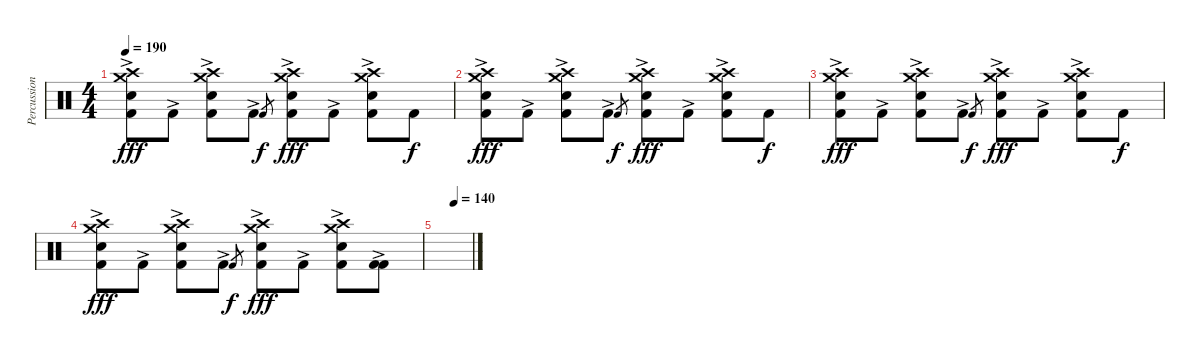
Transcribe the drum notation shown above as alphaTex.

\track ("Percussions" "Percussion") {instrument percussion}
\staff {score}
\articulation defaults
\ts (4 4)
\tempo 190
\clef neutral
\ks c
("Crash high (hit)" "Crash medium (hit)" "Electric Snare (hit)" "Kick (hit) 2"{ac}).8{dy fff} "Kick (hit) 2"{ac}.8 ("Crash high (hit)" "Crash medium (hit)" "Electric Snare (hit)" "Kick (hit) 2"{ac}).8 "Kick (hit) 2"{ac}.8 "Kick (hit) 2".8{gr dy f} ("Crash high (hit)" "Crash medium (hit)" "Electric Snare (hit)" "Kick (hit) 2"{ac}).8{dy fff} "Kick (hit) 2"{ac}.8 ("Crash high (hit)" "Crash medium (hit)" "Electric Snare (hit)" "Kick (hit) 2"{ac}).8 "Kick (hit) 2".8{dy f} |
("Crash high (hit)" "Crash medium (hit)" "Electric Snare (hit)" "Kick (hit) 2"{ac}).8{dy fff} "Kick (hit) 2"{ac}.8 ("Crash high (hit)" "Crash medium (hit)" "Electric Snare (hit)" "Kick (hit) 2"{ac}).8 "Kick (hit) 2"{ac}.8 "Kick (hit) 2".8{gr dy f} ("Crash high (hit)" "Crash medium (hit)" "Electric Snare (hit)" "Kick (hit) 2"{ac}).8{dy fff} "Kick (hit) 2"{ac}.8 ("Crash high (hit)" "Crash medium (hit)" "Electric Snare (hit)" "Kick (hit) 2"{ac}).8 "Kick (hit) 2".8{dy f} |
("Crash high (hit)" "Crash medium (hit)" "Electric Snare (hit)" "Kick (hit) 2"{ac}).8{dy fff} "Kick (hit) 2"{ac}.8 ("Crash high (hit)" "Crash medium (hit)" "Electric Snare (hit)" "Kick (hit) 2"{ac}).8 "Kick (hit) 2"{ac}.8 "Kick (hit) 2".8{gr dy f} ("Crash high (hit)" "Crash medium (hit)" "Electric Snare (hit)" "Kick (hit) 2"{ac}).8{dy fff} "Kick (hit) 2"{ac}.8 ("Crash high (hit)" "Crash medium (hit)" "Electric Snare (hit)" "Kick (hit) 2"{ac}).8 "Kick (hit) 2".8{dy f} |
("Crash high (hit)" "Crash medium (hit)" "Electric Snare (hit)" "Kick (hit) 2"{ac}).8{dy fff} "Kick (hit) 2"{ac}.8 ("Crash high (hit)" "Crash medium (hit)" "Electric Snare (hit)" "Kick (hit) 2"{ac}).8 "Kick (hit) 2"{ac}.8 "Kick (hit) 2".8{gr dy f} ("Crash high (hit)" "Crash medium (hit)" "Electric Snare (hit)" "Kick (hit) 2"{ac}).8{dy fff} "Kick (hit) 2"{ac}.8 ("Crash high (hit)" "Crash medium (hit)" "Electric Snare (hit)" "Kick (hit) 2"{ac}).8 ("Kick (hit) 2" "Kick (hit) 2"{ac}).8 |
\tempo (140 0.5)
